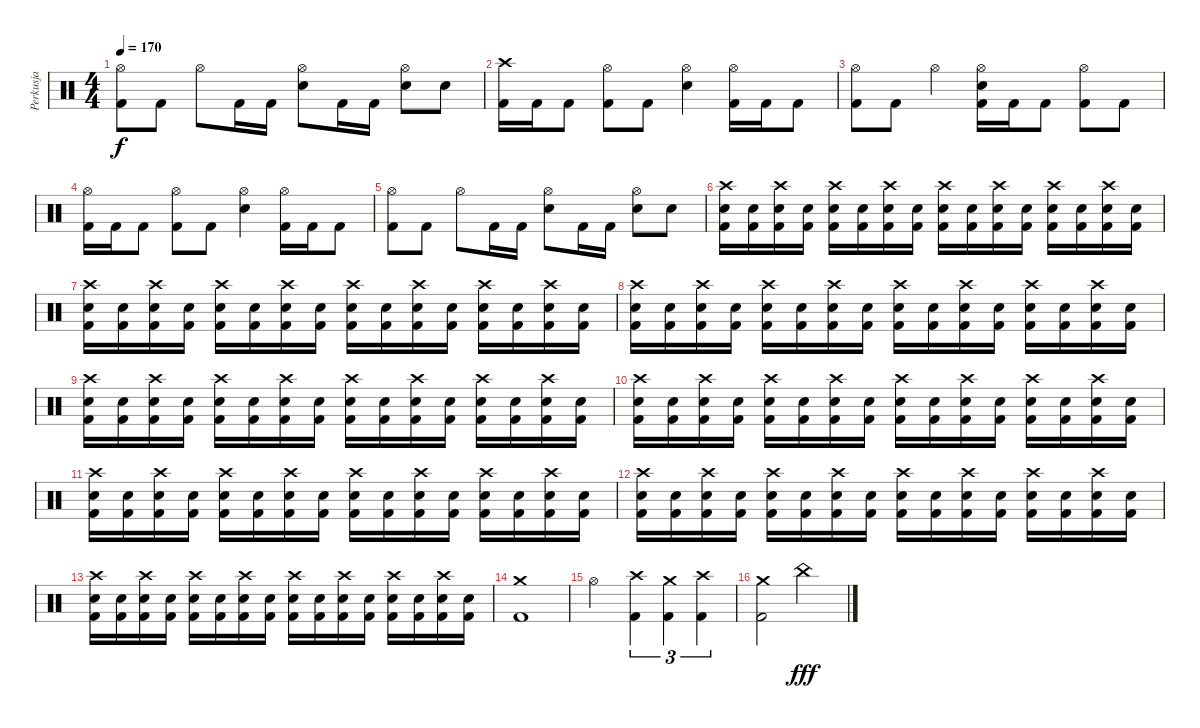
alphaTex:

\track ("Perkusja" "Perkusja") {instrument percussion}
\staff {score}
\articulation defaults
\ts (4 4)
\tempo 170
\clef neutral
\ks c
("Hi-Hat (open)" "Kick (hit) 2").8{dy f} "Kick (hit) 2".8 "Hi-Hat (open)".8 "Kick (hit) 2".16 "Kick (hit) 2".16 ("Hi-Hat (open)" "Electric Snare (hit)").8 "Kick (hit) 2".16 "Kick (hit) 2".16 ("Hi-Hat (open)" "Electric Snare (hit)").8 "Electric Snare (hit)".8 |
("Crash high (hit)" "Kick (hit) 2").16 "Kick (hit) 2".16 "Kick (hit) 2".8 ("Hi-Hat (open)" "Kick (hit) 2").8 "Kick (hit) 2".8 ("Hi-Hat (open)" "Electric Snare (hit)").4 ("Hi-Hat (open)" "Kick (hit) 2").16 "Kick (hit) 2".16 "Kick (hit) 2".8 |
("Hi-Hat (open)" "Kick (hit) 2").8 "Kick (hit) 2".8 "Hi-Hat (open)".4 ("Hi-Hat (open)" "Electric Snare (hit)" "Kick (hit) 2").16 "Kick (hit) 2".16 "Kick (hit) 2".8 ("Hi-Hat (open)" "Kick (hit) 2").8 "Kick (hit) 2".8 |
("Hi-Hat (open)" "Kick (hit) 2").16 "Kick (hit) 2".16 "Kick (hit) 2".8 ("Hi-Hat (open)" "Kick (hit) 2").8 "Kick (hit) 2".8 ("Hi-Hat (open)" "Electric Snare (hit)").4 ("Hi-Hat (open)" "Kick (hit) 2").16 "Kick (hit) 2".16 "Kick (hit) 2".8 |
("Hi-Hat (open)" "Kick (hit) 2").8 "Kick (hit) 2".8 "Hi-Hat (open)".8 "Kick (hit) 2".16 "Kick (hit) 2".16 ("Hi-Hat (open)" "Electric Snare (hit)").8 "Kick (hit) 2".16 "Kick (hit) 2".16 ("Hi-Hat (open)" "Electric Snare (hit)").8 "Electric Snare (hit)".8 |
("Crash high (hit)" "Electric Snare (hit)" "Kick (hit) 2").16 ("Electric Snare (hit)" "Kick (hit) 2").16 ("Crash high (hit)" "Electric Snare (hit)" "Kick (hit) 2").16 ("Electric Snare (hit)" "Kick (hit) 2").16 ("Crash high (hit)" "Electric Snare (hit)" "Kick (hit) 2").16 ("Electric Snare (hit)" "Kick (hit) 2").16 ("Crash high (hit)" "Electric Snare (hit)" "Kick (hit) 2").16 ("Electric Snare (hit)" "Kick (hit) 2").16 ("Crash high (hit)" "Electric Snare (hit)" "Kick (hit) 2").16 ("Electric Snare (hit)" "Kick (hit) 2").16 ("Crash high (hit)" "Electric Snare (hit)" "Kick (hit) 2").16 ("Electric Snare (hit)" "Kick (hit) 2").16 ("Crash high (hit)" "Electric Snare (hit)" "Kick (hit) 2").16 ("Electric Snare (hit)" "Kick (hit) 2").16 ("Crash high (hit)" "Electric Snare (hit)" "Kick (hit) 2").16 ("Electric Snare (hit)" "Kick (hit) 2").16 |
("Crash high (hit)" "Electric Snare (hit)" "Kick (hit) 2").16 ("Electric Snare (hit)" "Kick (hit) 2").16 ("Crash high (hit)" "Electric Snare (hit)" "Kick (hit) 2").16 ("Electric Snare (hit)" "Kick (hit) 2").16 ("Crash high (hit)" "Electric Snare (hit)" "Kick (hit) 2").16 ("Electric Snare (hit)" "Kick (hit) 2").16 ("Crash high (hit)" "Electric Snare (hit)" "Kick (hit) 2").16 ("Electric Snare (hit)" "Kick (hit) 2").16 ("Crash high (hit)" "Electric Snare (hit)" "Kick (hit) 2").16 ("Electric Snare (hit)" "Kick (hit) 2").16 ("Crash high (hit)" "Electric Snare (hit)" "Kick (hit) 2").16 ("Electric Snare (hit)" "Kick (hit) 2").16 ("Crash high (hit)" "Electric Snare (hit)" "Kick (hit) 2").16 ("Electric Snare (hit)" "Kick (hit) 2").16 ("Crash high (hit)" "Electric Snare (hit)" "Kick (hit) 2").16 ("Electric Snare (hit)" "Kick (hit) 2").16 |
("Crash high (hit)" "Electric Snare (hit)" "Kick (hit) 2").16 ("Electric Snare (hit)" "Kick (hit) 2").16 ("Crash high (hit)" "Electric Snare (hit)" "Kick (hit) 2").16 ("Electric Snare (hit)" "Kick (hit) 2").16 ("Crash high (hit)" "Electric Snare (hit)" "Kick (hit) 2").16 ("Electric Snare (hit)" "Kick (hit) 2").16 ("Crash high (hit)" "Electric Snare (hit)" "Kick (hit) 2").16 ("Electric Snare (hit)" "Kick (hit) 2").16 ("Crash high (hit)" "Electric Snare (hit)" "Kick (hit) 2").16 ("Electric Snare (hit)" "Kick (hit) 2").16 ("Crash high (hit)" "Electric Snare (hit)" "Kick (hit) 2").16 ("Electric Snare (hit)" "Kick (hit) 2").16 ("Crash high (hit)" "Electric Snare (hit)" "Kick (hit) 2").16 ("Electric Snare (hit)" "Kick (hit) 2").16 ("Crash high (hit)" "Electric Snare (hit)" "Kick (hit) 2").16 ("Electric Snare (hit)" "Kick (hit) 2").16 |
("Crash high (hit)" "Electric Snare (hit)" "Kick (hit) 2").16 ("Electric Snare (hit)" "Kick (hit) 2").16 ("Crash high (hit)" "Electric Snare (hit)" "Kick (hit) 2").16 ("Electric Snare (hit)" "Kick (hit) 2").16 ("Crash high (hit)" "Electric Snare (hit)" "Kick (hit) 2").16 ("Electric Snare (hit)" "Kick (hit) 2").16 ("Crash high (hit)" "Electric Snare (hit)" "Kick (hit) 2").16 ("Electric Snare (hit)" "Kick (hit) 2").16 ("Crash high (hit)" "Electric Snare (hit)" "Kick (hit) 2").16 ("Electric Snare (hit)" "Kick (hit) 2").16 ("Crash high (hit)" "Electric Snare (hit)" "Kick (hit) 2").16 ("Electric Snare (hit)" "Kick (hit) 2").16 ("Crash high (hit)" "Electric Snare (hit)" "Kick (hit) 2").16 ("Electric Snare (hit)" "Kick (hit) 2").16 ("Crash high (hit)" "Electric Snare (hit)" "Kick (hit) 2").16 ("Electric Snare (hit)" "Kick (hit) 2").16 |
("Crash high (hit)" "Electric Snare (hit)" "Kick (hit) 2").16 ("Electric Snare (hit)" "Kick (hit) 2").16 ("Crash high (hit)" "Electric Snare (hit)" "Kick (hit) 2").16 ("Electric Snare (hit)" "Kick (hit) 2").16 ("Crash high (hit)" "Electric Snare (hit)" "Kick (hit) 2").16 ("Electric Snare (hit)" "Kick (hit) 2").16 ("Crash high (hit)" "Electric Snare (hit)" "Kick (hit) 2").16 ("Electric Snare (hit)" "Kick (hit) 2").16 ("Crash high (hit)" "Electric Snare (hit)" "Kick (hit) 2").16 ("Electric Snare (hit)" "Kick (hit) 2").16 ("Crash high (hit)" "Electric Snare (hit)" "Kick (hit) 2").16 ("Electric Snare (hit)" "Kick (hit) 2").16 ("Crash high (hit)" "Electric Snare (hit)" "Kick (hit) 2").16 ("Electric Snare (hit)" "Kick (hit) 2").16 ("Crash high (hit)" "Electric Snare (hit)" "Kick (hit) 2").16 ("Electric Snare (hit)" "Kick (hit) 2").16 |
("Crash high (hit)" "Electric Snare (hit)" "Kick (hit) 2").16 ("Electric Snare (hit)" "Kick (hit) 2").16 ("Crash high (hit)" "Electric Snare (hit)" "Kick (hit) 2").16 ("Electric Snare (hit)" "Kick (hit) 2").16 ("Crash high (hit)" "Electric Snare (hit)" "Kick (hit) 2").16 ("Electric Snare (hit)" "Kick (hit) 2").16 ("Crash high (hit)" "Electric Snare (hit)" "Kick (hit) 2").16 ("Electric Snare (hit)" "Kick (hit) 2").16 ("Crash high (hit)" "Electric Snare (hit)" "Kick (hit) 2").16 ("Electric Snare (hit)" "Kick (hit) 2").16 ("Crash high (hit)" "Electric Snare (hit)" "Kick (hit) 2").16 ("Electric Snare (hit)" "Kick (hit) 2").16 ("Crash high (hit)" "Electric Snare (hit)" "Kick (hit) 2").16 ("Electric Snare (hit)" "Kick (hit) 2").16 ("Crash high (hit)" "Electric Snare (hit)" "Kick (hit) 2").16 ("Electric Snare (hit)" "Kick (hit) 2").16 |
("Crash high (hit)" "Electric Snare (hit)" "Kick (hit) 2").16 ("Electric Snare (hit)" "Kick (hit) 2").16 ("Crash high (hit)" "Electric Snare (hit)" "Kick (hit) 2").16 ("Electric Snare (hit)" "Kick (hit) 2").16 ("Crash high (hit)" "Electric Snare (hit)" "Kick (hit) 2").16 ("Electric Snare (hit)" "Kick (hit) 2").16 ("Crash high (hit)" "Electric Snare (hit)" "Kick (hit) 2").16 ("Electric Snare (hit)" "Kick (hit) 2").16 ("Crash high (hit)" "Electric Snare (hit)" "Kick (hit) 2").16 ("Electric Snare (hit)" "Kick (hit) 2").16 ("Crash high (hit)" "Electric Snare (hit)" "Kick (hit) 2").16 ("Electric Snare (hit)" "Kick (hit) 2").16 ("Crash high (hit)" "Electric Snare (hit)" "Kick (hit) 2").16 ("Electric Snare (hit)" "Kick (hit) 2").16 ("Crash high (hit)" "Electric Snare (hit)" "Kick (hit) 2").16 ("Electric Snare (hit)" "Kick (hit) 2").16 |
("Crash high (hit)" "Electric Snare (hit)" "Kick (hit) 2").16 ("Electric Snare (hit)" "Kick (hit) 2").16 ("Crash high (hit)" "Electric Snare (hit)" "Kick (hit) 2").16 ("Electric Snare (hit)" "Kick (hit) 2").16 ("Crash high (hit)" "Electric Snare (hit)" "Kick (hit) 2").16 ("Electric Snare (hit)" "Kick (hit) 2").16 ("Crash high (hit)" "Electric Snare (hit)" "Kick (hit) 2").16 ("Electric Snare (hit)" "Kick (hit) 2").16 ("Crash high (hit)" "Electric Snare (hit)" "Kick (hit) 2").16 ("Electric Snare (hit)" "Kick (hit) 2").16 ("Crash high (hit)" "Electric Snare (hit)" "Kick (hit) 2").16 ("Electric Snare (hit)" "Kick (hit) 2").16 ("Crash high (hit)" "Electric Snare (hit)" "Kick (hit) 2").16 ("Electric Snare (hit)" "Kick (hit) 2").16 ("Crash high (hit)" "Electric Snare (hit)" "Kick (hit) 2").16 ("Electric Snare (hit)" "Kick (hit) 2").16 |
("Crash medium (hit)" "Kick (hit) 2").1 |
"Hi-Hat (open)".2 ("Crash high (hit)" "Kick (hit) 2").4{tu (3 2)} ("Crash medium (hit)" "Kick (hit) 2").4{tu (3 2)} ("Crash high (hit)" "Kick (hit) 2").4{tu (3 2)} |
("Crash medium (hit)" "Kick (hit) 2").2 "China (hit)".2{dy fff}
